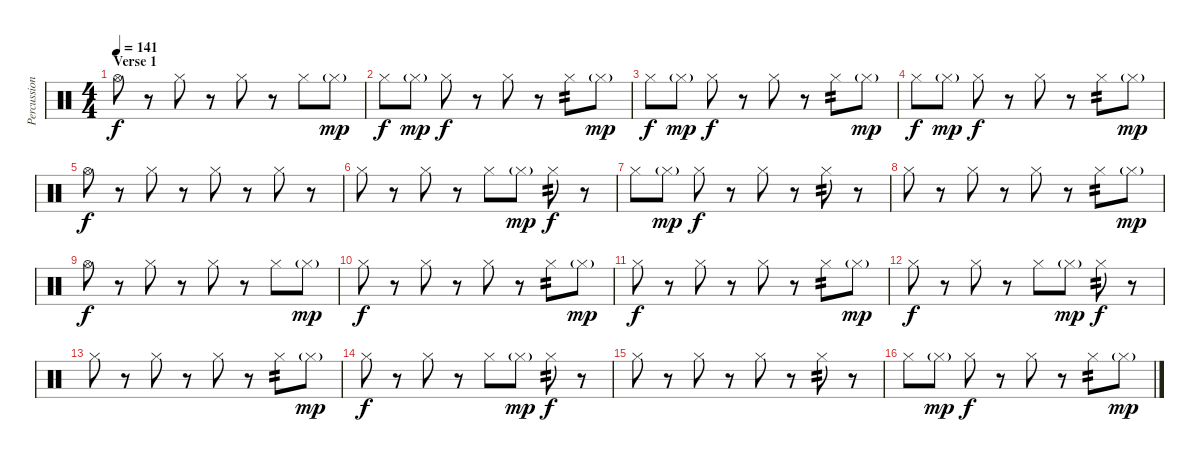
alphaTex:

\track ("Percussion" "Percussion") {instrument percussion}
\staff {score}
\articulation defaults
\ts (4 4)
\section ("" "Verse 1")
\tempo 141
\clef neutral
\ks c "Hi-Hat (open)".8{dy f}
r.8 "Hi-Hat (closed)".8 r.8 "Hi-Hat (closed)".8 r.8 "Hi-Hat (closed)".8 "Hi-Hat (closed)"{g}.8{dy mp} |
"Hi-Hat (closed)".8{dy f} "Hi-Hat (closed)"{g}.8{dy mp} "Hi-Hat (closed)".8{dy f} r.8 "Hi-Hat (closed)".8 r.8 "Hi-Hat (closed)".8{tp 2} "Hi-Hat (closed)"{g}.8{dy mp} |
"Hi-Hat (closed)".8{dy f} "Hi-Hat (closed)"{g}.8{dy mp} "Hi-Hat (closed)".8{dy f} r.8 "Hi-Hat (closed)".8 r.8 "Hi-Hat (closed)".8{tp 2} "Hi-Hat (closed)"{g}.8{dy mp} |
"Hi-Hat (closed)".8{dy f} "Hi-Hat (closed)"{g}.8{dy mp} "Hi-Hat (closed)".8{dy f} r.8 "Hi-Hat (closed)".8 r.8 "Hi-Hat (closed)".8{tp 2} "Hi-Hat (closed)"{g}.8{dy mp} |
"Hi-Hat (open)".8{dy f} r.8 "Hi-Hat (closed)".8 r.8 "Hi-Hat (closed)".8 r.8 "Hi-Hat (closed)".8 r.8 |
"Hi-Hat (closed)".8 r.8 "Hi-Hat (closed)".8 r.8 "Hi-Hat (closed)".8 "Hi-Hat (closed)"{g}.8{dy mp} "Hi-Hat (closed)".8{tp 2 dy f} r.8 |
"Hi-Hat (closed)".8 "Hi-Hat (closed)"{g}.8{dy mp} "Hi-Hat (closed)".8{dy f} r.8 "Hi-Hat (closed)".8 r.8 "Hi-Hat (closed)".8{tp 2} r.8 |
"Hi-Hat (closed)".8 r.8 "Hi-Hat (closed)".8 r.8 "Hi-Hat (closed)".8 r.8 "Hi-Hat (closed)".8{tp 2} "Hi-Hat (closed)"{g}.8{dy mp} |
"Hi-Hat (open)".8{dy f} r.8 "Hi-Hat (closed)".8 r.8 "Hi-Hat (closed)".8 r.8 "Hi-Hat (closed)".8 "Hi-Hat (closed)"{g}.8{dy mp} |
"Hi-Hat (closed)".8{dy f} r.8 "Hi-Hat (closed)".8 r.8 "Hi-Hat (closed)".8 r.8 "Hi-Hat (closed)".8{tp 2} "Hi-Hat (closed)"{g}.8{dy mp} |
"Hi-Hat (closed)".8{dy f} r.8 "Hi-Hat (closed)".8 r.8 "Hi-Hat (closed)".8 r.8 "Hi-Hat (closed)".8{tp 2} "Hi-Hat (closed)"{g}.8{dy mp} |
"Hi-Hat (closed)".8{dy f} r.8 "Hi-Hat (closed)".8 r.8 "Hi-Hat (closed)".8 "Hi-Hat (closed)"{g}.8{dy mp} "Hi-Hat (closed)".8{tp 2 dy f} r.8 |
"Hi-Hat (closed)".8 r.8 "Hi-Hat (closed)".8 r.8 "Hi-Hat (closed)".8 r.8 "Hi-Hat (closed)".8{tp 2} "Hi-Hat (closed)"{g}.8{dy mp} |
"Hi-Hat (closed)".8{dy f} r.8 "Hi-Hat (closed)".8 r.8 "Hi-Hat (closed)".8 "Hi-Hat (closed)"{g}.8{dy mp} "Hi-Hat (closed)".8{tp 2 dy f} r.8 |
"Hi-Hat (closed)".8 r.8 "Hi-Hat (closed)".8 r.8 "Hi-Hat (closed)".8 r.8 "Hi-Hat (closed)".8{tp 2} r.8 |
"Hi-Hat (closed)".8 "Hi-Hat (closed)"{g}.8{dy mp} "Hi-Hat (closed)".8{dy f} r.8 "Hi-Hat (closed)".8 r.8 "Hi-Hat (closed)".8{tp 2} "Hi-Hat (closed)"{g}.8{dy mp}
